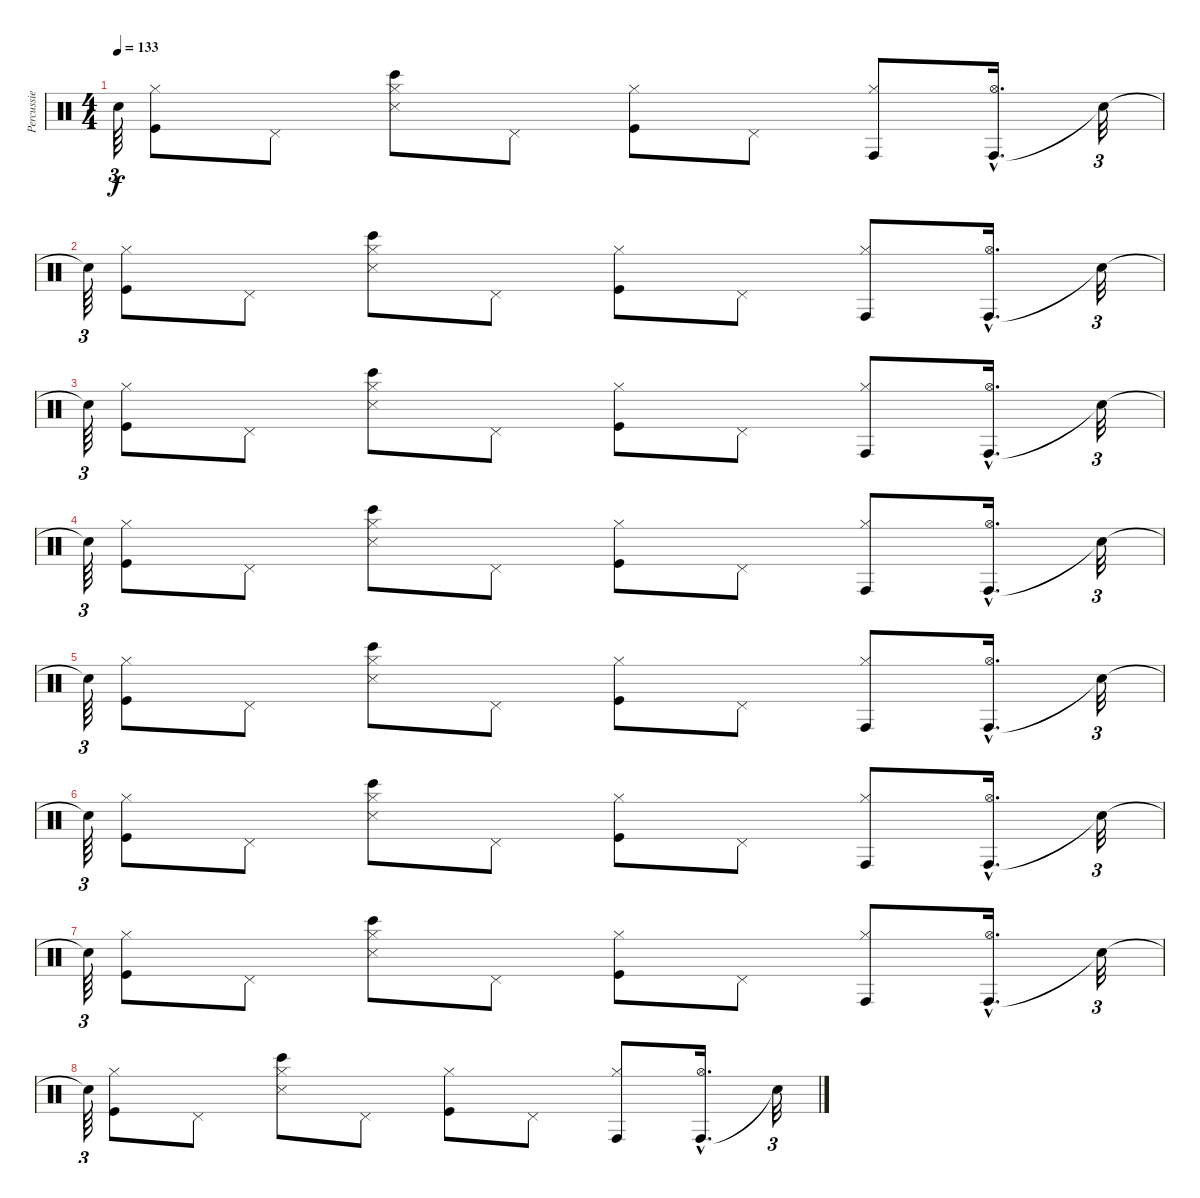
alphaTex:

\track ("Percussie" "Percussie") {instrument percussion}
\staff {score}
\articulation defaults
\ts (4 4)
\tempo 133
\clef neutral
\ks c "Snare (hit)"{t}.64{tu (3 2) dy f}
("Kick (hit)" "Hi-Hat (closed)").8 "Pedal Hi-Hat (hit)".8 ("Bongo High (hit)" "Snare (side stick) 3" "Hi-Hat (closed)").8 "Pedal Hi-Hat (hit)".8 ("Kick (hit)" "Hi-Hat (closed)").8 "Pedal Hi-Hat (hit)".8 ("Conga high (hit)" "Hi-Hat (closed)").8 ("Conga high (hit)"{hac} "Hi-Hat (open)"{hac}).16{d} "Snare (hit)"{t}.32{tu (3 2)} |
"Snare (hit)"{t}.64{tu (3 2)} ("Kick (hit)" "Hi-Hat (closed)").8 "Pedal Hi-Hat (hit)".8 ("Bongo High (hit)" "Snare (side stick) 3" "Hi-Hat (closed)").8 "Pedal Hi-Hat (hit)".8 ("Kick (hit)" "Hi-Hat (closed)").8 "Pedal Hi-Hat (hit)".8 ("Conga high (hit)" "Hi-Hat (closed)").8 ("Conga high (hit)"{hac} "Hi-Hat (open)"{hac}).16{d} "Snare (hit)"{t}.32{tu (3 2)} |
"Snare (hit)"{t}.64{tu (3 2)} ("Kick (hit)" "Hi-Hat (closed)").8 "Pedal Hi-Hat (hit)".8 ("Bongo High (hit)" "Snare (side stick) 3" "Hi-Hat (closed)").8 "Pedal Hi-Hat (hit)".8 ("Kick (hit)" "Hi-Hat (closed)").8 "Pedal Hi-Hat (hit)".8 ("Conga high (hit)" "Hi-Hat (closed)").8 ("Conga high (hit)"{hac} "Hi-Hat (open)"{hac}).16{d} "Snare (hit)"{t}.32{tu (3 2)} |
"Snare (hit)"{t}.64{tu (3 2)} ("Kick (hit)" "Hi-Hat (closed)").8 "Pedal Hi-Hat (hit)".8 ("Bongo High (hit)" "Snare (side stick) 3" "Hi-Hat (closed)").8 "Pedal Hi-Hat (hit)".8 ("Kick (hit)" "Hi-Hat (closed)").8 "Pedal Hi-Hat (hit)".8 ("Conga high (hit)" "Hi-Hat (closed)").8 ("Conga high (hit)"{hac} "Hi-Hat (open)"{hac}).16{d} "Snare (hit)"{t}.32{tu (3 2)} |
"Snare (hit)"{t}.64{tu (3 2)} ("Kick (hit)" "Hi-Hat (closed)").8 "Pedal Hi-Hat (hit)".8 ("Bongo High (hit)" "Snare (side stick) 3" "Hi-Hat (closed)").8 "Pedal Hi-Hat (hit)".8 ("Kick (hit)" "Hi-Hat (closed)").8 "Pedal Hi-Hat (hit)".8 ("Conga high (hit)" "Hi-Hat (closed)").8 ("Conga high (hit)"{hac} "Hi-Hat (open)"{hac}).16{d} "Snare (hit)"{t}.32{tu (3 2)} |
"Snare (hit)"{t}.64{tu (3 2)} ("Kick (hit)" "Hi-Hat (closed)").8 "Pedal Hi-Hat (hit)".8 ("Bongo High (hit)" "Snare (side stick) 3" "Hi-Hat (closed)").8 "Pedal Hi-Hat (hit)".8 ("Kick (hit)" "Hi-Hat (closed)").8 "Pedal Hi-Hat (hit)".8 ("Conga high (hit)" "Hi-Hat (closed)").8 ("Conga high (hit)"{hac} "Hi-Hat (open)"{hac}).16{d} "Snare (hit)"{t}.32{tu (3 2)} |
"Snare (hit)"{t}.64{tu (3 2)} ("Kick (hit)" "Hi-Hat (closed)").8 "Pedal Hi-Hat (hit)".8 ("Bongo High (hit)" "Snare (side stick) 3" "Hi-Hat (closed)").8 "Pedal Hi-Hat (hit)".8 ("Kick (hit)" "Hi-Hat (closed)").8 "Pedal Hi-Hat (hit)".8 ("Conga high (hit)" "Hi-Hat (closed)").8 ("Conga high (hit)"{hac} "Hi-Hat (open)"{hac}).16{d} "Snare (hit)"{t}.32{tu (3 2)} |
"Snare (hit)"{t}.64{tu (3 2)} ("Kick (hit)" "Hi-Hat (closed)").8 "Pedal Hi-Hat (hit)".8 ("Bongo High (hit)" "Snare (side stick) 3" "Hi-Hat (closed)").8 "Pedal Hi-Hat (hit)".8 ("Kick (hit)" "Hi-Hat (closed)").8 "Pedal Hi-Hat (hit)".8 ("Conga high (hit)" "Hi-Hat (closed)").8 ("Conga high (hit)"{hac} "Hi-Hat (open)"{hac}).16{d} "Snare (hit)"{t}.32{tu (3 2)}
